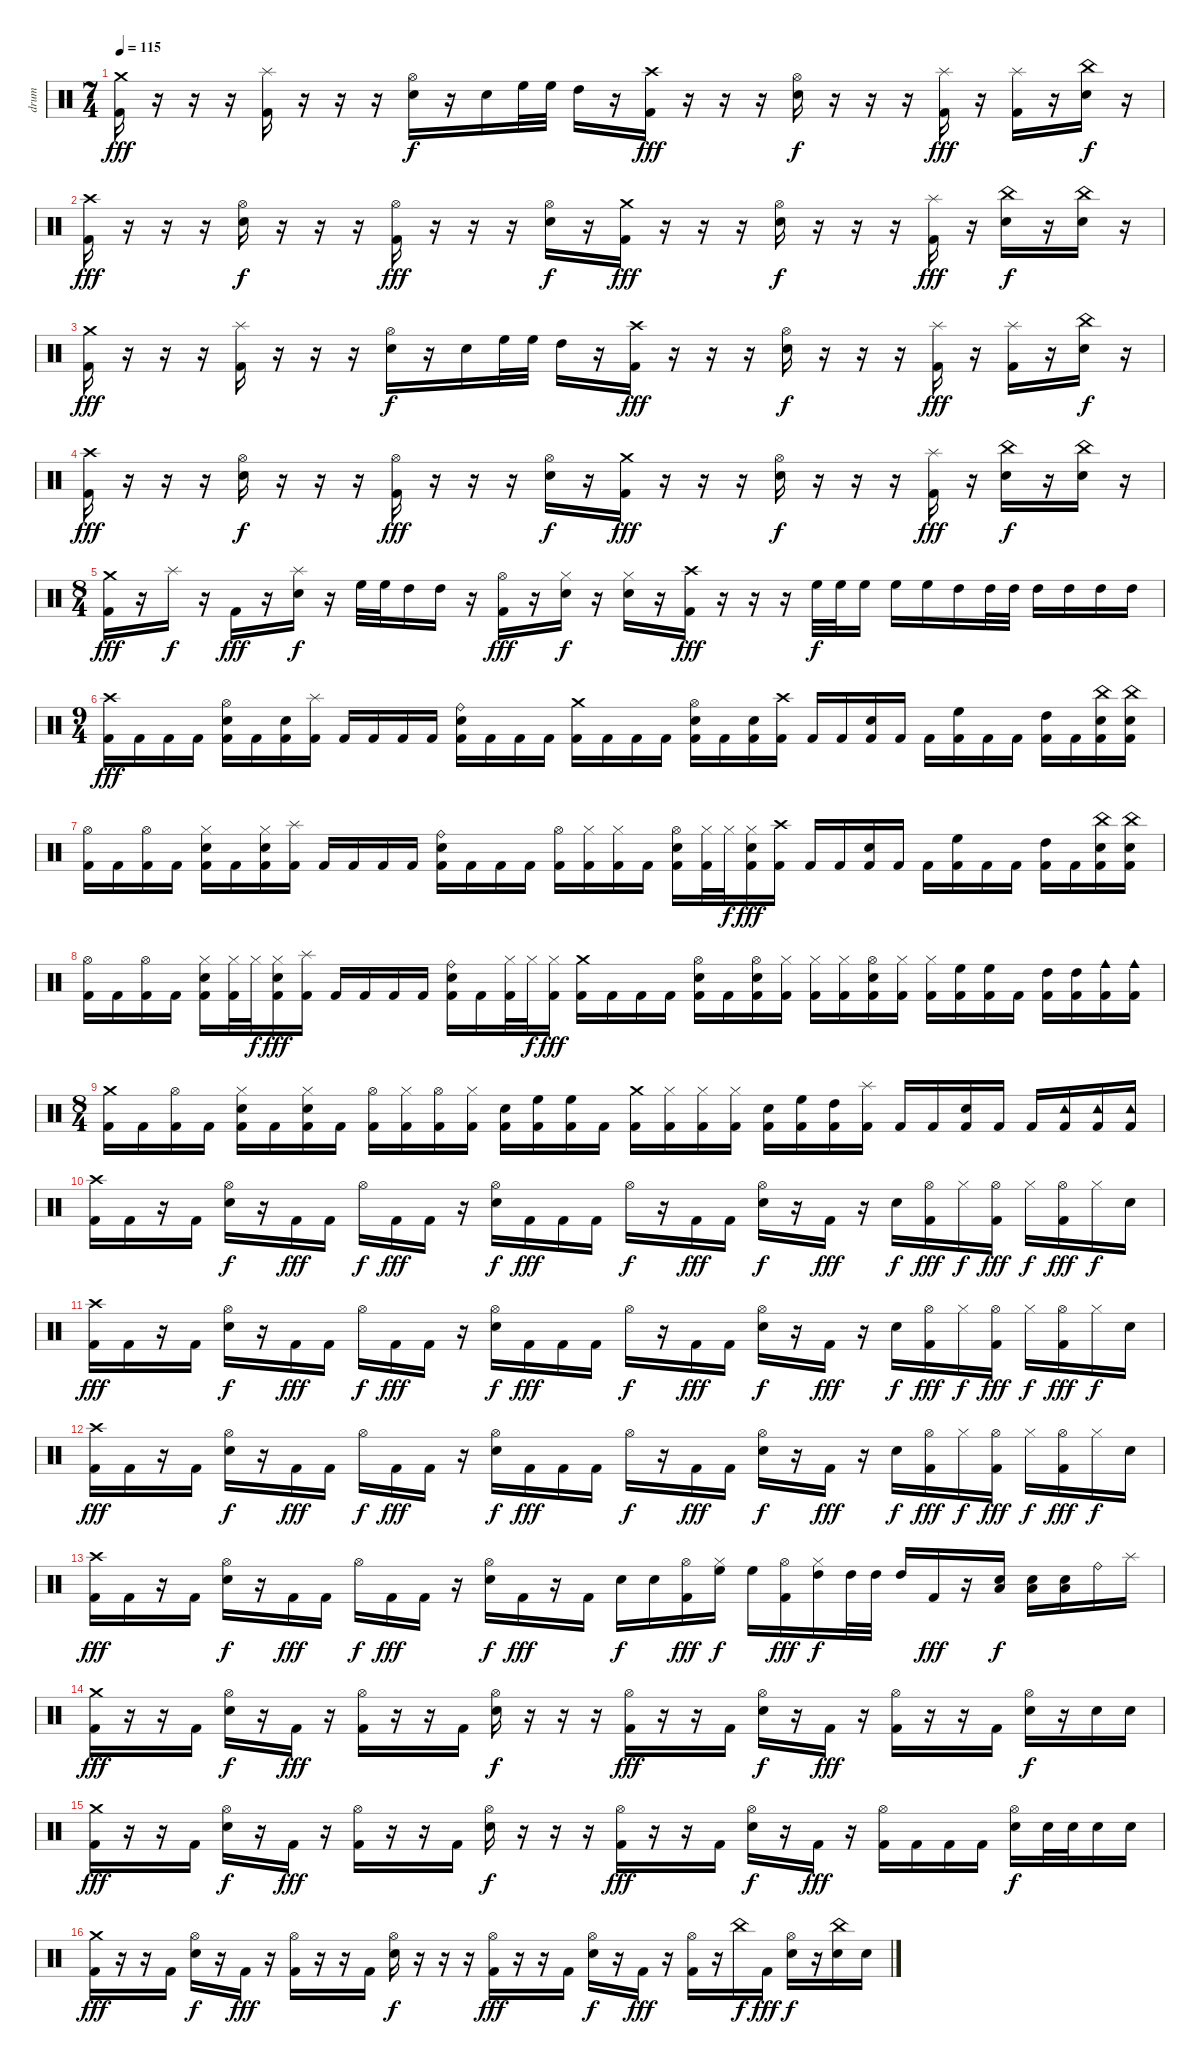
\track ("drum" "drum") {instrument percussion}
\staff {score}
\articulation defaults
\ts (7 4)
\tempo 115
\clef neutral
\ks c
("Crash medium (hit)" "Kick (hit) 2").16{dy fff} r.16 r.16 r.16 ("Splash (hit)" "Kick (hit) 2").16 r.16 r.16 r.16 ("Hi-Hat (open)" "Electric Snare (hit)").16{dy f} r.16 "Electric Snare (hit)".16 "High Floor Tom (hit)".32 "High Floor Tom (hit)".32 "High Tom (hit)".16 r.16 ("Crash high (hit)" "Kick (hit) 2").16{dy fff} r.16 r.16 r.16 ("Hi-Hat (open)" "Electric Snare (hit)").16{dy f} r.16 r.16 r.16 ("Splash (hit)" "Kick (hit) 2").16{dy fff} r.16 ("Splash (hit)" "Kick (hit) 2").16 r.16 ("China (hit)" "Electric Snare (hit)").16{dy f} r.16 |
("Crash high (hit)" "Kick (hit) 2").16{dy fff} r.16 r.16 r.16 ("Hi-Hat (open)" "Electric Snare (hit)").16{dy f} r.16 r.16 r.16 ("Hi-Hat (open)" "Kick (hit) 2").16{dy fff} r.16 r.16 r.16 ("Hi-Hat (open)" "Electric Snare (hit)").16{dy f} r.16 ("Crash medium (hit)" "Kick (hit) 2").16{dy fff} r.16 r.16 r.16 ("Hi-Hat (open)" "Electric Snare (hit)").16{dy f} r.16 r.16 r.16 ("Splash (hit)" "Kick (hit) 2").16{dy fff} r.16 ("China (hit)" "Electric Snare (hit)").16{dy f} r.16 ("China (hit)" "Electric Snare (hit)").16 r.16 |
("Crash medium (hit)" "Kick (hit) 2").16{dy fff} r.16 r.16 r.16 ("Splash (hit)" "Kick (hit) 2").16 r.16 r.16 r.16 ("Hi-Hat (open)" "Electric Snare (hit)").16{dy f} r.16 "Electric Snare (hit)".16 "High Floor Tom (hit)".32 "High Floor Tom (hit)".32 "High Tom (hit)".16 r.16 ("Crash high (hit)" "Kick (hit) 2").16{dy fff} r.16 r.16 r.16 ("Hi-Hat (open)" "Electric Snare (hit)").16{dy f} r.16 r.16 r.16 ("Splash (hit)" "Kick (hit) 2").16{dy fff} r.16 ("Splash (hit)" "Kick (hit) 2").16 r.16 ("China (hit)" "Electric Snare (hit)").16{dy f} r.16 |
("Crash high (hit)" "Kick (hit) 2").16{dy fff} r.16 r.16 r.16 ("Hi-Hat (open)" "Electric Snare (hit)").16{dy f} r.16 r.16 r.16 ("Hi-Hat (open)" "Kick (hit) 2").16{dy fff} r.16 r.16 r.16 ("Hi-Hat (open)" "Electric Snare (hit)").16{dy f} r.16 ("Crash medium (hit)" "Kick (hit) 2").16{dy fff} r.16 r.16 r.16 ("Hi-Hat (open)" "Electric Snare (hit)").16{dy f} r.16 r.16 r.16 ("Splash (hit)" "Kick (hit) 2").16{dy fff} r.16 ("China (hit)" "Electric Snare (hit)").16{dy f} r.16 ("China (hit)" "Electric Snare (hit)").16 r.16 |
\ts (8 4)
("Crash medium (hit)" "Kick (hit) 2").16{dy fff} r.16 "Splash (hit)".16{dy f} r.16 "Kick (hit) 2".16{dy fff} r.16 ("Splash (hit)" "Electric Snare (hit)").16{dy f} r.16 "High Floor Tom (hit)".32 "High Floor Tom (hit)".32 "High Tom (hit)".16 "High Tom (hit)".16 r.16 ("Hi-Hat (open)" "Kick (hit) 2").16{dy fff} r.16 ("Hi-Hat (closed)" "Electric Snare (hit)").16{dy f} r.16 ("Hi-Hat (closed)" "Electric Snare (hit)").16 r.16 ("Crash high (hit)" "Kick (hit) 2").16{dy fff} r.16 r.16 r.16 "High Floor Tom (hit)".32{dy f} "High Floor Tom (hit)".32 "High Floor Tom (hit)".16 "High Floor Tom (hit)".16 "High Floor Tom (hit)".16 "High Tom (hit)".16 "High Tom (hit)".32 "High Tom (hit)".32 "High Tom (hit)".16 "High Tom (hit)".16 "High Tom (hit)".16 "High Tom (hit)".16 |
\ts (9 4)
("Crash high (hit)" "Kick (hit) 2").16{dy fff} "Kick (hit) 2".16 "Kick (hit) 2".16 "Kick (hit) 2".16 ("Hi-Hat (open)" "Electric Snare (hit)" "Kick (hit) 2").16 "Kick (hit) 2".16 ("Electric Snare (hit)" "Kick (hit) 2").16 ("Splash (hit)" "Kick (hit) 2").16 "Kick (hit) 2".16 "Kick (hit) 2".16 "Kick (hit) 2".16 "Kick (hit) 2".16 ("Ride (bell)" "Electric Snare (hit)" "Kick (hit) 2").16 "Kick (hit) 2".16 "Kick (hit) 2".16 "Kick (hit) 2".16 ("Crash medium (hit)" "Kick (hit) 2").16 "Kick (hit) 2".16 "Kick (hit) 2".16 "Kick (hit) 2".16 ("Hi-Hat (open)" "Electric Snare (hit)" "Kick (hit) 2").16 "Kick (hit) 2".16 ("Electric Snare (hit)" "Kick (hit) 2").16 ("Crash high (hit)" "Kick (hit) 2").16 "Kick (hit) 2".16 "Kick (hit) 2".16 ("Electric Snare (hit)" "Kick (hit) 2").16 "Kick (hit) 2".16 "Kick (hit) 2".16 ("High Floor Tom (hit)" "Kick (hit) 2").16 "Kick (hit) 2".16 "Kick (hit) 2".16 ("High Tom (hit)" "Kick (hit) 2").16 "Kick (hit) 2".16 ("China (hit)" "Electric Snare (hit)" "Kick (hit) 2").16 ("China (hit)" "Electric Snare (hit)" "Kick (hit) 2").16 |
("Hi-Hat (open)" "Kick (hit) 2").16 "Kick (hit) 2".16 ("Hi-Hat (open)" "Kick (hit) 2").16 "Kick (hit) 2".16 ("Hi-Hat (closed)" "Electric Snare (hit)" "Kick (hit) 2").16 "Kick (hit) 2".16 ("Hi-Hat (closed)" "Electric Snare (hit)" "Kick (hit) 2").16 ("Splash (hit)" "Kick (hit) 2").16 "Kick (hit) 2".16 "Kick (hit) 2".16 "Kick (hit) 2".16 "Kick (hit) 2".16 ("Ride (bell)" "Electric Snare (hit)" "Kick (hit) 2").16 "Kick (hit) 2".16 "Kick (hit) 2".16 "Kick (hit) 2".16 ("Hi-Hat (open)" "Kick (hit) 2").16 ("Hi-Hat (closed)" "Kick (hit) 2").16 ("Hi-Hat (closed)" "Kick (hit) 2").16 "Kick (hit) 2".16 ("Hi-Hat (open)" "Electric Snare (hit)" "Kick (hit) 2").16 ("Hi-Hat (closed)" "Kick (hit) 2").32 "Hi-Hat (closed)".32{dy f} ("Hi-Hat (closed)" "Electric Snare (hit)" "Kick (hit) 2").16{dy fff} ("Crash high (hit)" "Kick (hit) 2").16 "Kick (hit) 2".16 "Kick (hit) 2".16 ("Electric Snare (hit)" "Kick (hit) 2").16 "Kick (hit) 2".16 "Kick (hit) 2".16 ("High Floor Tom (hit)" "Kick (hit) 2").16 "Kick (hit) 2".16 "Kick (hit) 2".16 ("High Tom (hit)" "Kick (hit) 2").16 "Kick (hit) 2".16 ("China (hit)" "Electric Snare (hit)" "Kick (hit) 2").16 ("China (hit)" "Electric Snare (hit)" "Kick (hit) 2").16 |
("Hi-Hat (open)" "Kick (hit) 2").16 "Kick (hit) 2".16 ("Hi-Hat (open)" "Kick (hit) 2").16 "Kick (hit) 2".16 ("Hi-Hat (closed)" "Electric Snare (hit)" "Kick (hit) 2").16 ("Hi-Hat (closed)" "Kick (hit) 2").32 "Hi-Hat (closed)".32{dy f} ("Hi-Hat (closed)" "Electric Snare (hit)" "Kick (hit) 2").16{dy fff} ("Splash (hit)" "Kick (hit) 2").16 "Kick (hit) 2".16 "Kick (hit) 2".16 "Kick (hit) 2".16 "Kick (hit) 2".16 ("Ride (bell)" "Electric Snare (hit)" "Kick (hit) 2").16 "Kick (hit) 2".16 ("Hi-Hat (closed)" "Kick (hit) 2").32 "Hi-Hat (closed)".32{dy f} ("Hi-Hat (closed)" "Kick (hit) 2").16{dy fff} ("Crash medium (hit)" "Kick (hit) 2").16 "Kick (hit) 2".16 "Kick (hit) 2".16 "Kick (hit) 2".16 ("Hi-Hat (open)" "Electric Snare (hit)" "Kick (hit) 2").16 "Kick (hit) 2".16 ("Hi-Hat (open)" "Electric Snare (hit)" "Kick (hit) 2").16 ("Hi-Hat (closed)" "Kick (hit) 2").16 ("Hi-Hat (closed)" "Kick (hit) 2").16 ("Hi-Hat (closed)" "Kick (hit) 2").16 ("Hi-Hat (open)" "Electric Snare (hit)" "Kick (hit) 2").16 ("Hi-Hat (closed)" "Kick (hit) 2").16 ("Hi-Hat (closed)" "Kick (hit) 2").16 ("High Floor Tom (hit)" "Kick (hit) 2").16 ("High Floor Tom (hit)" "Kick (hit) 2").16 "Kick (hit) 2".16 ("High Tom (hit)" "Kick (hit) 2").16 ("High Tom (hit)" "Kick (hit) 2").16 ("Cowbell medium (hit)" "Kick (hit) 2").16 ("Cowbell medium (hit)" "Kick (hit) 2").16 |
\ts (8 4)
("Crash medium (hit)" "Kick (hit) 2").16 "Kick (hit) 2".16 ("Hi-Hat (open)" "Kick (hit) 2").16 "Kick (hit) 2".16 ("Hi-Hat (closed)" "Electric Snare (hit)" "Kick (hit) 2").16 "Kick (hit) 2".16 ("Hi-Hat (closed)" "Electric Snare (hit)" "Kick (hit) 2").16 "Kick (hit) 2".16 ("Hi-Hat (open)" "Kick (hit) 2").16 ("Hi-Hat (closed)" "Kick (hit) 2").16 ("Hi-Hat (open)" "Kick (hit) 2").16 ("Hi-Hat (closed)" "Kick (hit) 2").16 ("Electric Snare (hit)" "Kick (hit) 2").16 ("High Floor Tom (hit)" "Kick (hit) 2").16 ("High Floor Tom (hit)" "Kick (hit) 2").16 "Kick (hit) 2".16 ("Crash medium (hit)" "Kick (hit) 2").16 ("Hi-Hat (closed)" "Kick (hit) 2").16 ("Hi-Hat (closed)" "Kick (hit) 2").16 ("Hi-Hat (closed)" "Kick (hit) 2").16 ("Electric Snare (hit)" "Kick (hit) 2").16 ("High Floor Tom (hit)" "Kick (hit) 2").16 ("High Tom (hit)" "Kick (hit) 2").16 ("Splash (hit)" "Kick (hit) 2").16 "Kick (hit) 2".16 "Kick (hit) 2".16 ("Electric Snare (hit)" "Kick (hit) 2").16 "Kick (hit) 2".16 "Kick (hit) 2".16 ("Tambourine (hit)" "Kick (hit) 2").16 ("Tambourine (hit)" "Kick (hit) 2").16 ("Tambourine (hit)" "Kick (hit) 2").16 |
("Crash high (hit)" "Kick (hit) 2").16 "Kick (hit) 2".16 r.16 "Kick (hit) 2".16 ("Hi-Hat (open)" "Electric Snare (hit)").16{dy f} r.16 "Kick (hit) 2".16{dy fff} "Kick (hit) 2".16 "Hi-Hat (open)".16{dy f} "Kick (hit) 2".16{dy fff} "Kick (hit) 2".16 r.16 ("Hi-Hat (open)" "Electric Snare (hit)").16{dy f} "Kick (hit) 2".16{dy fff} "Kick (hit) 2".16 "Kick (hit) 2".16 "Hi-Hat (open)".16{dy f} r.16 "Kick (hit) 2".16{dy fff} "Kick (hit) 2".16 ("Hi-Hat (open)" "Electric Snare (hit)").16{dy f} r.16 "Kick (hit) 2".16{dy fff} r.16 "Electric Snare (hit)".16{dy f} ("Hi-Hat (open)" "Kick (hit) 2").16{dy fff} "Hi-Hat (closed)".16{dy f} ("Hi-Hat (open)" "Kick (hit) 2").16{dy fff} "Hi-Hat (closed)".16{dy f} ("Hi-Hat (open)" "Kick (hit) 2").16{dy fff} "Hi-Hat (closed)".16{dy f} "Electric Snare (hit)".16 |
("Crash high (hit)" "Kick (hit) 2").16{dy fff} "Kick (hit) 2".16 r.16 "Kick (hit) 2".16 ("Hi-Hat (open)" "Electric Snare (hit)").16{dy f} r.16 "Kick (hit) 2".16{dy fff} "Kick (hit) 2".16 "Hi-Hat (open)".16{dy f} "Kick (hit) 2".16{dy fff} "Kick (hit) 2".16 r.16 ("Hi-Hat (open)" "Electric Snare (hit)").16{dy f} "Kick (hit) 2".16{dy fff} "Kick (hit) 2".16 "Kick (hit) 2".16 "Hi-Hat (open)".16{dy f} r.16 "Kick (hit) 2".16{dy fff} "Kick (hit) 2".16 ("Hi-Hat (open)" "Electric Snare (hit)").16{dy f} r.16 "Kick (hit) 2".16{dy fff} r.16 "Electric Snare (hit)".16{dy f} ("Hi-Hat (open)" "Kick (hit) 2").16{dy fff} "Hi-Hat (closed)".16{dy f} ("Hi-Hat (open)" "Kick (hit) 2").16{dy fff} "Hi-Hat (closed)".16{dy f} ("Hi-Hat (open)" "Kick (hit) 2").16{dy fff} "Hi-Hat (closed)".16{dy f} "Electric Snare (hit)".16 |
("Crash high (hit)" "Kick (hit) 2").16{dy fff} "Kick (hit) 2".16 r.16 "Kick (hit) 2".16 ("Hi-Hat (open)" "Electric Snare (hit)").16{dy f} r.16 "Kick (hit) 2".16{dy fff} "Kick (hit) 2".16 "Hi-Hat (open)".16{dy f} "Kick (hit) 2".16{dy fff} "Kick (hit) 2".16 r.16 ("Hi-Hat (open)" "Electric Snare (hit)").16{dy f} "Kick (hit) 2".16{dy fff} "Kick (hit) 2".16 "Kick (hit) 2".16 "Hi-Hat (open)".16{dy f} r.16 "Kick (hit) 2".16{dy fff} "Kick (hit) 2".16 ("Hi-Hat (open)" "Electric Snare (hit)").16{dy f} r.16 "Kick (hit) 2".16{dy fff} r.16 "Electric Snare (hit)".16{dy f} ("Hi-Hat (open)" "Kick (hit) 2").16{dy fff} "Hi-Hat (closed)".16{dy f} ("Hi-Hat (open)" "Kick (hit) 2").16{dy fff} "Hi-Hat (closed)".16{dy f} ("Hi-Hat (open)" "Kick (hit) 2").16{dy fff} "Hi-Hat (closed)".16{dy f} "Electric Snare (hit)".16 |
("Crash high (hit)" "Kick (hit) 2").16{dy fff} "Kick (hit) 2".16 r.16 "Kick (hit) 2".16 ("Hi-Hat (open)" "Electric Snare (hit)").16{dy f} r.16 "Kick (hit) 2".16{dy fff} "Kick (hit) 2".16 "Hi-Hat (open)".16{dy f} "Kick (hit) 2".16{dy fff} "Kick (hit) 2".16 r.16 ("Hi-Hat (open)" "Electric Snare (hit)").16{dy f} "Kick (hit) 2".16{dy fff} r.16 "Kick (hit) 2".16 "Electric Snare (hit)".16{dy f} "Electric Snare (hit)".16 ("Hi-Hat (open)" "Kick (hit) 2").16{dy fff} ("Hi-Hat (closed)" "High Floor Tom (hit)").16{dy f} "High Floor Tom (hit)".16 ("Hi-Hat (open)" "Kick (hit) 2").16{dy fff} ("Hi-Hat (closed)" "High Tom (hit)").16{dy f} "High Tom (hit)".32 "High Tom (hit)".32 "High Tom (hit)".16 "Kick (hit) 2".16{dy fff} r.16 ("Low Floor Tom (hit)" "Electric Snare (hit)").16{dy f} ("Low Floor Tom (hit)" "Electric Snare (hit)").16 ("Low Floor Tom (hit)" "Electric Snare (hit)").16 "Ride (bell)".16 "Splash (hit)".16 |
("Crash medium (hit)" "Kick (hit) 2").16{dy fff} r.16 r.16 "Kick (hit) 2".16 ("Hi-Hat (open)" "Electric Snare (hit)").16{dy f} r.16 "Kick (hit) 2".16{dy fff} r.16 ("Hi-Hat (open)" "Kick (hit) 2").16 r.16 r.16 "Kick (hit) 2".16 ("Hi-Hat (open)" "Electric Snare (hit)").16{dy f} r.16 r.16 r.16 ("Hi-Hat (open)" "Kick (hit) 2").16{dy fff} r.16 r.16 "Kick (hit) 2".16 ("Hi-Hat (open)" "Electric Snare (hit)").16{dy f} r.16 "Kick (hit) 2".16{dy fff} r.16 ("Hi-Hat (open)" "Kick (hit) 2").16 r.16 r.16 "Kick (hit) 2".16 ("Hi-Hat (open)" "Electric Snare (hit)").16{dy f} r.16 "Electric Snare (hit)".16 "Electric Snare (hit)".16 |
("Crash medium (hit)" "Kick (hit) 2").16{dy fff} r.16 r.16 "Kick (hit) 2".16 ("Hi-Hat (open)" "Electric Snare (hit)").16{dy f} r.16 "Kick (hit) 2".16{dy fff} r.16 ("Hi-Hat (open)" "Kick (hit) 2").16 r.16 r.16 "Kick (hit) 2".16 ("Hi-Hat (open)" "Electric Snare (hit)").16{dy f} r.16 r.16 r.16 ("Hi-Hat (open)" "Kick (hit) 2").16{dy fff} r.16 r.16 "Kick (hit) 2".16 ("Hi-Hat (open)" "Electric Snare (hit)").16{dy f} r.16 "Kick (hit) 2".16{dy fff} r.16 ("Hi-Hat (open)" "Kick (hit) 2").16 "Kick (hit) 2".16 "Kick (hit) 2".16 "Kick (hit) 2".16 ("Hi-Hat (open)" "Electric Snare (hit)").16{dy f} "Electric Snare (hit)".32 "Electric Snare (hit)".32 "Electric Snare (hit)".16 "Electric Snare (hit)".16 |
("Crash medium (hit)" "Kick (hit) 2").16{dy fff} r.16 r.16 "Kick (hit) 2".16 ("Hi-Hat (open)" "Electric Snare (hit)").16{dy f} r.16 "Kick (hit) 2".16{dy fff} r.16 ("Hi-Hat (open)" "Kick (hit) 2").16 r.16 r.16 "Kick (hit) 2".16 ("Hi-Hat (open)" "Electric Snare (hit)").16{dy f} r.16 r.16 r.16 ("Hi-Hat (open)" "Kick (hit) 2").16{dy fff} r.16 r.16 "Kick (hit) 2".16 ("Hi-Hat (open)" "Electric Snare (hit)").16{dy f} r.16 "Kick (hit) 2".16{dy fff} r.16 ("Hi-Hat (open)" "Kick (hit) 2").16 r.16 "China (hit)".16{dy f} "Kick (hit) 2".16{dy fff} ("Hi-Hat (open)" "Electric Snare (hit)").16{dy f} r.16 ("China (hit)" "Electric Snare (hit)").16 "Electric Snare (hit)".16
